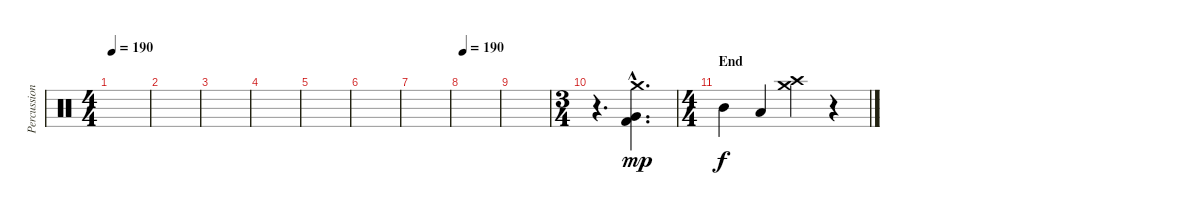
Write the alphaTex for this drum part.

\track ("Percussion" "Percussion") {instrument percussion}
\staff {score}
\articulation defaults
\ts (4 4)
\tempo 190
\clef neutral
\ks c
|
|
|
|
|
|
|
\tempo 190
|
|
\ts (3 4)
r.4{d} ("Crash medium (hit)"{hac} "Very Low Tom (hit)"{hac} "Kick (hit) 2"{hac}).4{d dy mp} |
\ts (4 4)
\section ("" "End")
"Mid Tom (hit)".4{dy f} "Low Tom (hit)".4 ("Crash high (hit)" "Crash medium (hit)").4 r.4
